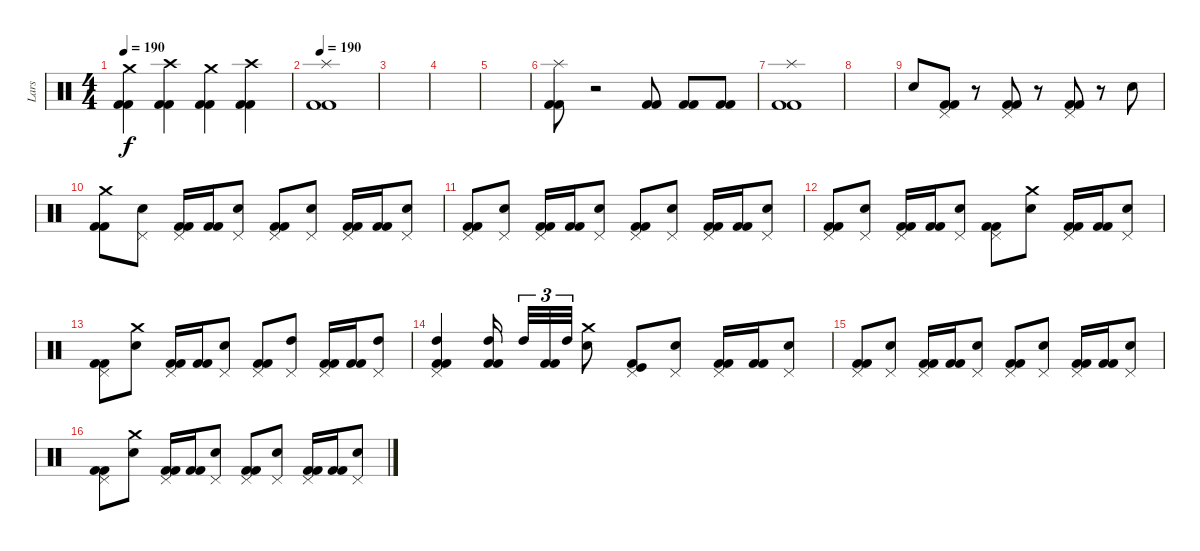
\track ("Lars" "Lars") {instrument percussion}
\staff {score}
\articulation defaults
\ts (4 4)
\tempo 190
\clef neutral
\ks c
("Crash medium (hit)" "Kick (hit) 2" "Kick (hit) 2").4{dy f} ("Crash high (hit)" "Kick (hit) 2" "Kick (hit) 2").4 ("Crash medium (hit)" "Kick (hit) 2" "Kick (hit) 2").4 ("Crash high (hit)" "Kick (hit) 2" "Kick (hit) 2").4 |
\tempo 190
("Splash (hit)" "Kick (hit) 2" "Kick (hit) 2").1 |
|
|
|
("Splash (hit)" "Kick (hit) 2" "Kick (hit) 2").8 r.2 ("Kick (hit) 2" "Kick (hit) 2").8 ("Kick (hit) 2" "Kick (hit) 2").8 ("Kick (hit) 2" "Kick (hit) 2").8 |
("Splash (hit)" "Kick (hit) 2" "Kick (hit) 2").1 |
|
"Electric Snare (hit)".8 ("Pedal Hi-Hat (hit)" "Kick (hit) 2" "Kick (hit) 2").8 r.8 ("Pedal Hi-Hat (hit)" "Kick (hit) 2" "Kick (hit) 2").8 r.8 ("Pedal Hi-Hat (hit)" "Kick (hit) 2" "Kick (hit) 2").8 r.8 "Electric Snare (hit)".8 |
("Crash medium (hit)" "Kick (hit) 2" "Kick (hit) 2").8 ("Pedal Hi-Hat (hit)" "Electric Snare (hit)").8 ("Pedal Hi-Hat (hit)" "Kick (hit) 2" "Kick (hit) 2").16 ("Kick (hit) 2" "Kick (hit) 2").16 ("Pedal Hi-Hat (hit)" "Electric Snare (hit)").8 ("Pedal Hi-Hat (hit)" "Kick (hit) 2" "Kick (hit) 2").8 ("Pedal Hi-Hat (hit)" "Electric Snare (hit)").8 ("Pedal Hi-Hat (hit)" "Kick (hit) 2" "Kick (hit) 2").16 ("Kick (hit) 2" "Kick (hit) 2").16 ("Pedal Hi-Hat (hit)" "Electric Snare (hit)").8 |
("Pedal Hi-Hat (hit)" "Kick (hit) 2" "Kick (hit) 2").8 ("Pedal Hi-Hat (hit)" "Electric Snare (hit)").8 ("Pedal Hi-Hat (hit)" "Kick (hit) 2" "Kick (hit) 2").16 ("Kick (hit) 2" "Kick (hit) 2").16 ("Pedal Hi-Hat (hit)" "Electric Snare (hit)").8 ("Pedal Hi-Hat (hit)" "Kick (hit) 2" "Kick (hit) 2").8 ("Pedal Hi-Hat (hit)" "Electric Snare (hit)").8 ("Pedal Hi-Hat (hit)" "Kick (hit) 2" "Kick (hit) 2").16 ("Kick (hit) 2" "Kick (hit) 2").16 ("Pedal Hi-Hat (hit)" "Electric Snare (hit)").8 |
("Pedal Hi-Hat (hit)" "Kick (hit) 2" "Kick (hit) 2").8 ("Pedal Hi-Hat (hit)" "Electric Snare (hit)").8 ("Pedal Hi-Hat (hit)" "Kick (hit) 2" "Kick (hit) 2").16 ("Kick (hit) 2" "Kick (hit) 2").16 ("Pedal Hi-Hat (hit)" "Electric Snare (hit)").8 ("Pedal Hi-Hat (hit)" "Kick (hit) 2" "Kick (hit) 2").8 ("Crash medium (hit)" "Electric Snare (hit)").8 ("Pedal Hi-Hat (hit)" "Kick (hit) 2" "Kick (hit) 2").16 ("Kick (hit) 2" "Kick (hit) 2").16 ("Pedal Hi-Hat (hit)" "Electric Snare (hit)").8 |
("Pedal Hi-Hat (hit)" "Kick (hit) 2" "Kick (hit) 2").8 ("Crash medium (hit)" "Electric Snare (hit)").8 ("Pedal Hi-Hat (hit)" "Kick (hit) 2" "Kick (hit) 2").16 ("Kick (hit) 2" "Kick (hit) 2").16 ("Pedal Hi-Hat (hit)" "Electric Snare (hit)").8 ("Pedal Hi-Hat (hit)" "Kick (hit) 2" "Kick (hit) 2").8 ("Pedal Hi-Hat (hit)" "High Tom (hit)").8 ("Pedal Hi-Hat (hit)" "Kick (hit) 2" "Kick (hit) 2").16 ("Kick (hit) 2" "Kick (hit) 2").16 ("Pedal Hi-Hat (hit)" "High Tom (hit)").8 |
("Pedal Hi-Hat (hit)" "High Tom (hit)" "Kick (hit) 2" "Kick (hit) 2").4 ("High Tom (hit)" "Kick (hit) 2" "Kick (hit) 2").16{beam splitsecondary} "High Tom (hit)".32{tu (3 2)} ("Kick (hit) 2" "Kick (hit) 2").32{tu (3 2)} "High Tom (hit)".32{tu (3 2)} ("Crash medium (hit)" "Electric Snare (hit)").8 ("Pedal Hi-Hat (hit)" "Kick (hit)" "Kick (hit) 2").8 ("Pedal Hi-Hat (hit)" "Electric Snare (hit)").8 ("Pedal Hi-Hat (hit)" "Kick (hit) 2" "Kick (hit) 2").16 ("Kick (hit) 2" "Kick (hit) 2").16 ("Pedal Hi-Hat (hit)" "Electric Snare (hit)").8 |
("Pedal Hi-Hat (hit)" "Kick (hit) 2" "Kick (hit) 2").8 ("Pedal Hi-Hat (hit)" "Electric Snare (hit)").8 ("Pedal Hi-Hat (hit)" "Kick (hit) 2" "Kick (hit) 2").16 ("Kick (hit) 2" "Kick (hit) 2").16 ("Pedal Hi-Hat (hit)" "Electric Snare (hit)").8 ("Pedal Hi-Hat (hit)" "Kick (hit) 2" "Kick (hit) 2").8 ("Pedal Hi-Hat (hit)" "Electric Snare (hit)").8 ("Pedal Hi-Hat (hit)" "Kick (hit) 2" "Kick (hit) 2").16 ("Kick (hit) 2" "Kick (hit) 2").16 ("Pedal Hi-Hat (hit)" "Electric Snare (hit)").8 |
("Pedal Hi-Hat (hit)" "Kick (hit) 2" "Kick (hit) 2").8 ("Crash medium (hit)" "Electric Snare (hit)").8 ("Pedal Hi-Hat (hit)" "Kick (hit) 2" "Kick (hit) 2").16 ("Kick (hit) 2" "Kick (hit) 2").16 ("Pedal Hi-Hat (hit)" "Electric Snare (hit)").8 ("Pedal Hi-Hat (hit)" "Kick (hit) 2" "Kick (hit) 2").8 ("Pedal Hi-Hat (hit)" "Electric Snare (hit)").8 ("Pedal Hi-Hat (hit)" "Kick (hit) 2" "Kick (hit) 2").16 ("Kick (hit) 2" "Kick (hit) 2").16 ("Pedal Hi-Hat (hit)" "Electric Snare (hit)").8
